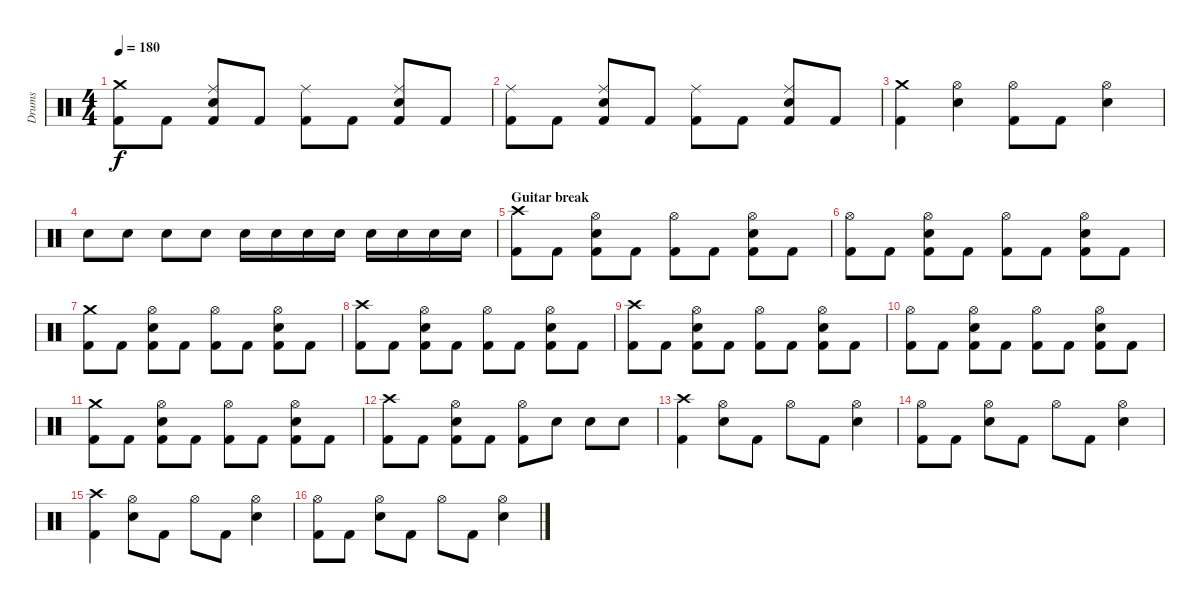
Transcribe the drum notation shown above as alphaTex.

\track ("Drums" "Drums") {instrument percussion}
\staff {score}
\articulation defaults
\ts (4 4)
\tempo 180
\clef neutral
\ks c
("Crash medium (hit)" "Kick (hit) 2").8{dy f} "Kick (hit) 2".8 ("Ride (middle)" "Electric Snare (hit)" "Kick (hit) 2").8 "Kick (hit) 2".8 ("Ride (middle)" "Kick (hit) 2").8 "Kick (hit) 2".8 ("Ride (middle)" "Electric Snare (hit)" "Kick (hit) 2").8 "Kick (hit) 2".8 |
("Ride (middle)" "Kick (hit) 2").8 "Kick (hit) 2".8 ("Ride (middle)" "Electric Snare (hit)" "Kick (hit) 2").8 "Kick (hit) 2".8 ("Ride (middle)" "Kick (hit) 2").8 "Kick (hit) 2".8 ("Ride (middle)" "Electric Snare (hit)" "Kick (hit) 2").8 "Kick (hit) 2".8 |
("Crash medium (hit)" "Kick (hit) 2").4 ("Hi-Hat (open)" "Electric Snare (hit)").4 ("Hi-Hat (open)" "Kick (hit) 2").8 "Kick (hit) 2".8 ("Hi-Hat (open)" "Electric Snare (hit)").4 |
"Electric Snare (hit)".8 "Electric Snare (hit)".8 "Electric Snare (hit)".8 "Electric Snare (hit)".8 "Snare (hit) 2".16 "Snare (hit) 2".16 "Snare (hit) 2".16 "Snare (hit) 2".16 "Snare (hit) 2".16 "Snare (hit) 2".16 "Snare (hit) 2".16 "Electric Snare (hit)".16 |
\section ("" "Guitar break")
("Crash high (hit)" "Kick (hit) 2").8 "Kick (hit) 2".8 ("Hi-Hat (open)" "Electric Snare (hit)" "Kick (hit) 2").8 "Kick (hit) 2".8 ("Hi-Hat (open)" "Kick (hit) 2").8 "Kick (hit) 2".8 ("Hi-Hat (open)" "Electric Snare (hit)" "Kick (hit) 2").8 "Kick (hit) 2".8 |
("Hi-Hat (open)" "Kick (hit) 2").8 "Kick (hit) 2".8 ("Hi-Hat (open)" "Electric Snare (hit)" "Kick (hit) 2").8 "Kick (hit) 2".8 ("Hi-Hat (open)" "Kick (hit) 2").8 "Kick (hit) 2".8 ("Hi-Hat (open)" "Electric Snare (hit)" "Kick (hit) 2").8 "Kick (hit) 2".8 |
("Crash medium (hit)" "Kick (hit) 2").8 "Kick (hit) 2".8 ("Hi-Hat (open)" "Electric Snare (hit)" "Kick (hit) 2").8 "Kick (hit) 2".8 ("Hi-Hat (open)" "Kick (hit) 2").8 "Kick (hit) 2".8 ("Hi-Hat (open)" "Electric Snare (hit)" "Kick (hit) 2").8 "Kick (hit) 2".8 |
("Crash high (hit)" "Kick (hit) 2").8 "Kick (hit) 2".8 ("Hi-Hat (open)" "Electric Snare (hit)" "Kick (hit) 2").8 "Kick (hit) 2".8 ("Hi-Hat (open)" "Kick (hit) 2").8 "Kick (hit) 2".8 ("Hi-Hat (open)" "Electric Snare (hit)" "Kick (hit) 2").8 "Kick (hit) 2".8 |
("Crash high (hit)" "Kick (hit) 2").8 "Kick (hit) 2".8 ("Hi-Hat (open)" "Electric Snare (hit)" "Kick (hit) 2").8 "Kick (hit) 2".8 ("Hi-Hat (open)" "Kick (hit) 2").8 "Kick (hit) 2".8 ("Hi-Hat (open)" "Electric Snare (hit)" "Kick (hit) 2").8 "Kick (hit) 2".8 |
("Hi-Hat (open)" "Kick (hit) 2").8 "Kick (hit) 2".8 ("Hi-Hat (open)" "Electric Snare (hit)" "Kick (hit) 2").8 "Kick (hit) 2".8 ("Hi-Hat (open)" "Kick (hit) 2").8 "Kick (hit) 2".8 ("Hi-Hat (open)" "Electric Snare (hit)" "Kick (hit) 2").8 "Kick (hit) 2".8 |
("Crash medium (hit)" "Kick (hit) 2").8 "Kick (hit) 2".8 ("Hi-Hat (open)" "Electric Snare (hit)" "Kick (hit) 2").8 "Kick (hit) 2".8 ("Hi-Hat (open)" "Kick (hit) 2").8 "Kick (hit) 2".8 ("Hi-Hat (open)" "Electric Snare (hit)" "Kick (hit) 2").8 "Kick (hit) 2".8 |
("Crash high (hit)" "Kick (hit) 2").8 "Kick (hit) 2".8 ("Hi-Hat (open)" "Electric Snare (hit)" "Kick (hit) 2").8 "Kick (hit) 2".8 ("Hi-Hat (open)" "Kick (hit) 2").8 "Electric Snare (hit)".8 "Electric Snare (hit)".8 "Electric Snare (hit)".8 |
("Crash high (hit)" "Kick (hit) 2").4 ("Hi-Hat (open)" "Electric Snare (hit)").8 "Kick (hit) 2".8 "Hi-Hat (open)".8 "Kick (hit) 2".8 ("Hi-Hat (open)" "Electric Snare (hit)").4 |
("Hi-Hat (open)" "Kick (hit) 2").8 "Kick (hit) 2".8 ("Hi-Hat (open)" "Electric Snare (hit)").8 "Kick (hit) 2".8 "Hi-Hat (open)".8 "Kick (hit) 2".8 ("Hi-Hat (open)" "Electric Snare (hit)").4 |
("Crash high (hit)" "Kick (hit) 2").4 ("Hi-Hat (open)" "Electric Snare (hit)").8 "Kick (hit) 2".8 "Hi-Hat (open)".8 "Kick (hit) 2".8 ("Hi-Hat (open)" "Electric Snare (hit)").4 |
("Hi-Hat (open)" "Kick (hit) 2").8 "Kick (hit) 2".8 ("Hi-Hat (open)" "Electric Snare (hit)").8 "Kick (hit) 2".8 "Hi-Hat (open)".8 "Kick (hit) 2".8 ("Hi-Hat (open)" "Electric Snare (hit)").4
